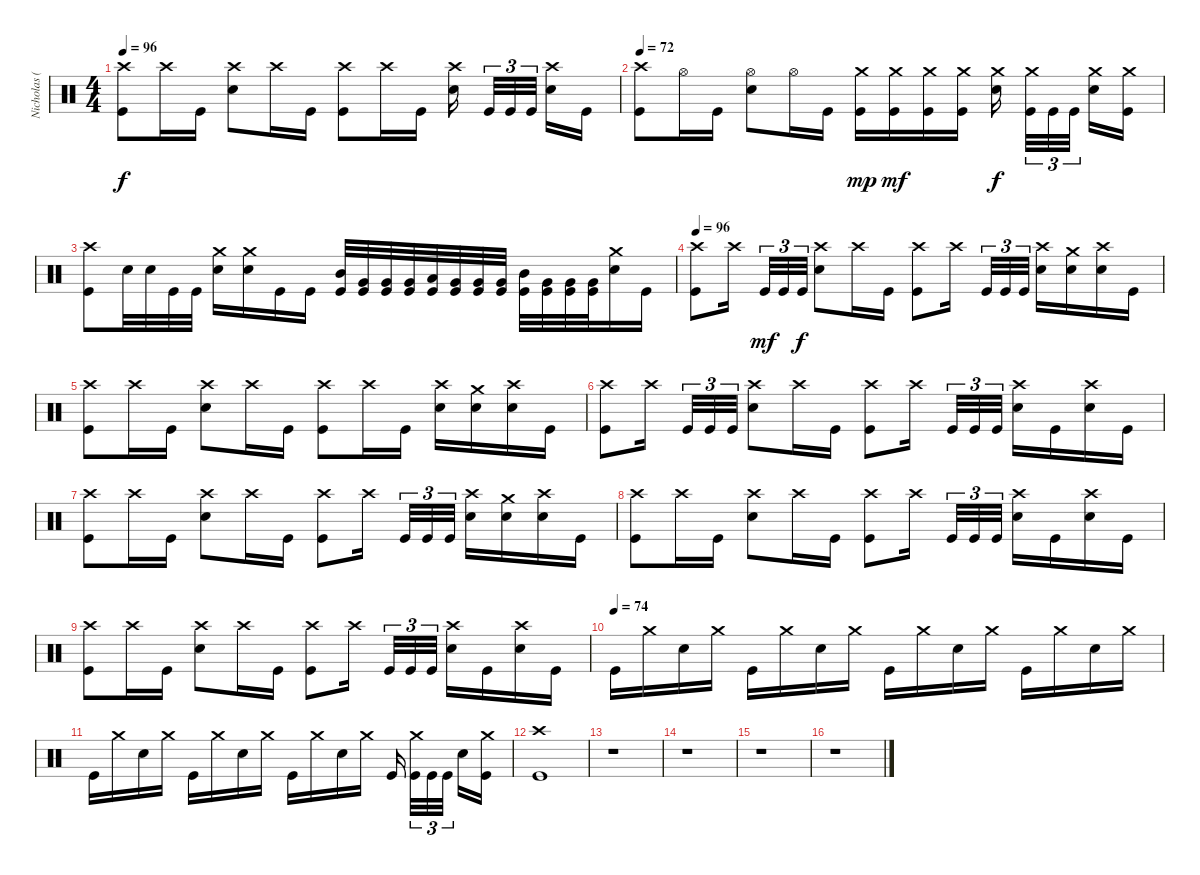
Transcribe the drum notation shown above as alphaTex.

\track ("Nicholas (Drums)" "Nicholas (") {instrument percussion}
\staff {score}
\articulation defaults
\ts (4 4)
\tempo 96
\clef neutral
\ks c
("Crash high (hit)" "Kick (hit)").8{dy f} "Crash high (hit)".16 "Kick (hit)".16 ("Crash high (hit)" "Electric Snare (hit)").8 "Crash high (hit)".16 "Kick (hit)".16 ("Crash high (hit)" "Kick (hit)").8 "Crash high (hit)".16 "Kick (hit)".16 ("Crash high (hit)" "Electric Snare (hit)").16 "Kick (hit)".32{tu (3 2)} "Kick (hit)".32{tu (3 2)} "Kick (hit)".32{tu (3 2)} ("Crash high (hit)" "Electric Snare (hit)").16 "Kick (hit)".16 |
\tempo 72
("Crash high (hit)" "Kick (hit)").8 "Hi-Hat (open)".16 "Kick (hit)".16 ("Hi-Hat (open)" "Electric Snare (hit)").8 "Hi-Hat (open)".16 "Kick (hit)".16 ("Crash medium (hit)" "Kick (hit)").16{dy mp} ("Crash medium (hit)" "Kick (hit)").16{dy mf} ("Crash medium (hit)" "Kick (hit)").16 ("Crash medium (hit)" "Kick (hit)").16 ("Crash medium (hit)" "Electric Snare (hit)").16{dy f} ("Crash medium (hit)" "Kick (hit)").32{tu (3 2)} "Kick (hit)".32{tu (3 2)} "Kick (hit)".32{tu (3 2)} ("Crash medium (hit)" "Electric Snare (hit)").16 ("Crash medium (hit)" "Kick (hit)").16 |
("Crash high (hit)" "Kick (hit)").8 "Electric Snare (hit)".32 "Electric Snare (hit)".32 "Kick (hit)".32 "Kick (hit)".32 ("Crash medium (hit)" "Electric Snare (hit)").16 ("Crash medium (hit)" "Electric Snare (hit)").16 "Kick (hit)".16 "Kick (hit)".16 ("Mid Tom (hit)" "Kick (hit)").32 ("Very Low Tom (hit)" "Kick (hit)").32 ("Very Low Tom (hit)" "Kick (hit)").32 ("Very Low Tom (hit)" "Kick (hit)").32 ("Low Tom (hit)" "Kick (hit)").32 ("Very Low Tom (hit)" "Kick (hit)").32 ("Very Low Tom (hit)" "Kick (hit)").32 ("Very Low Tom (hit)" "Kick (hit)").32 ("Mid Tom (hit)" "Kick (hit)").32 ("Very Low Tom (hit)" "Kick (hit)").32 ("Very Low Tom (hit)" "Kick (hit)").32 ("Very Low Tom (hit)" "Kick (hit)").32 ("Crash medium (hit)" "Electric Snare (hit)").16 "Kick (hit)".16 |
\tempo 96
("Crash high (hit)" "Kick (hit)").8 "Crash high (hit)".16 "Kick (hit)".32{tu (3 2) dy mf} "Kick (hit)".32{tu (3 2)} "Kick (hit)".32{tu (3 2) dy f} ("Crash high (hit)" "Electric Snare (hit)").8 "Crash high (hit)".16 "Kick (hit)".16 ("Crash high (hit)" "Kick (hit)").8 "Crash high (hit)".16 "Kick (hit)".32{tu (3 2)} "Kick (hit)".32{tu (3 2)} "Kick (hit)".32{tu (3 2)} ("Crash high (hit)" "Electric Snare (hit)").16 ("Crash medium (hit)" "Electric Snare (hit)").16 ("Crash high (hit)" "Electric Snare (hit)").16 "Kick (hit)".16 |
("Crash high (hit)" "Kick (hit)").8 "Crash high (hit)".16 "Kick (hit)".16 ("Crash high (hit)" "Electric Snare (hit)").8 "Crash high (hit)".16 "Kick (hit)".16 ("Crash high (hit)" "Kick (hit)").8 "Crash high (hit)".16 "Kick (hit)".16 ("Crash high (hit)" "Electric Snare (hit)").16 ("Crash medium (hit)" "Electric Snare (hit)").16 ("Crash high (hit)" "Electric Snare (hit)").16 "Kick (hit)".16 |
("Crash high (hit)" "Kick (hit)").8 "Crash high (hit)".16 "Kick (hit)".32{tu (3 2)} "Kick (hit)".32{tu (3 2)} "Kick (hit)".32{tu (3 2)} ("Crash high (hit)" "Electric Snare (hit)").8 "Crash high (hit)".16 "Kick (hit)".16 ("Crash high (hit)" "Kick (hit)").8 "Crash high (hit)".16 "Kick (hit)".32{tu (3 2)} "Kick (hit)".32{tu (3 2)} "Kick (hit)".32{tu (3 2)} ("Crash high (hit)" "Electric Snare (hit)").16 "Kick (hit)".16 ("Crash high (hit)" "Electric Snare (hit)").16 "Kick (hit)".16 |
("Crash high (hit)" "Kick (hit)").8 "Crash high (hit)".16 "Kick (hit)".16 ("Crash high (hit)" "Electric Snare (hit)").8 "Crash high (hit)".16 "Kick (hit)".16 ("Crash high (hit)" "Kick (hit)").8 "Crash high (hit)".16 "Kick (hit)".32{tu (3 2)} "Kick (hit)".32{tu (3 2)} "Kick (hit)".32{tu (3 2)} ("Crash high (hit)" "Electric Snare (hit)").16 ("Crash medium (hit)" "Electric Snare (hit)").16 ("Crash high (hit)" "Electric Snare (hit)").16 "Kick (hit)".16 |
("Crash high (hit)" "Kick (hit)").8 "Crash high (hit)".16 "Kick (hit)".16 ("Crash high (hit)" "Electric Snare (hit)").8 "Crash high (hit)".16 "Kick (hit)".16 ("Crash high (hit)" "Kick (hit)").8 "Crash high (hit)".16 "Kick (hit)".32{tu (3 2)} "Kick (hit)".32{tu (3 2)} "Kick (hit)".32{tu (3 2)} ("Crash high (hit)" "Electric Snare (hit)").16 "Kick (hit)".16 ("Crash high (hit)" "Electric Snare (hit)").16 "Kick (hit)".16 |
("Crash high (hit)" "Kick (hit)").8 "Crash high (hit)".16 "Kick (hit)".16 ("Crash high (hit)" "Electric Snare (hit)").8 "Crash high (hit)".16 "Kick (hit)".16 ("Crash high (hit)" "Kick (hit)").8 "Crash high (hit)".16 "Kick (hit)".32{tu (3 2)} "Kick (hit)".32{tu (3 2)} "Kick (hit)".32{tu (3 2)} ("Crash high (hit)" "Electric Snare (hit)").16 "Kick (hit)".16 ("Crash high (hit)" "Electric Snare (hit)").16 "Kick (hit)".16 |
\tempo (74)
"Kick (hit)".16 "Crash medium (hit)".16 "Electric Snare (hit)".16 "Crash medium (hit)".16 "Kick (hit)".16 "Crash medium (hit)".16 "Electric Snare (hit)".16 "Crash medium (hit)".16 "Kick (hit)".16 "Crash medium (hit)".16 "Electric Snare (hit)".16 "Crash medium (hit)".16 "Kick (hit)".16 "Crash medium (hit)".16 "Electric Snare (hit)".16 "Crash medium (hit)".16 |
"Kick (hit)".16 "Crash medium (hit)".16 "Electric Snare (hit)".16 "Crash medium (hit)".16 "Kick (hit)".16 "Crash medium (hit)".16 "Electric Snare (hit)".16 "Crash medium (hit)".16 "Kick (hit)".16 "Crash medium (hit)".16 "Electric Snare (hit)".16 "Crash medium (hit)".16 "Kick (hit)".16 ("Crash medium (hit)" "Kick (hit)").32{tu (3 2)} "Kick (hit)".32{tu (3 2)} "Kick (hit)".32{tu (3 2)} "Electric Snare (hit)".16 ("Crash medium (hit)" "Kick (hit)").16 |
("Crash high (hit)" "Kick (hit)").1 |
r.1 |
r.1 |
r.1 |
r.1
